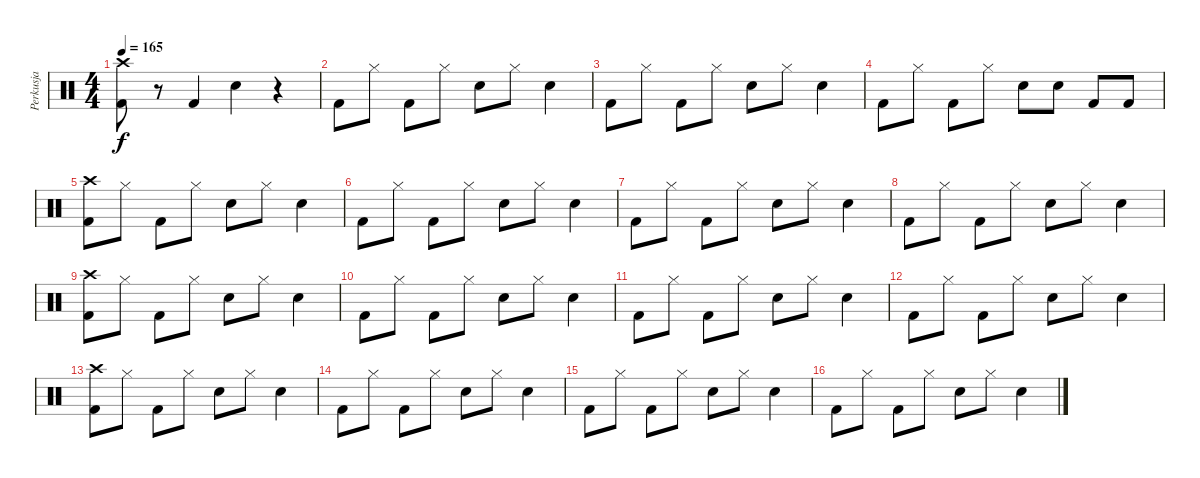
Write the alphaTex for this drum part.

\track ("Perkusja" "Perkusja") {instrument percussion}
\staff {score}
\articulation defaults
\ts (4 4)
\tempo 165
\clef neutral
\ks c
("Crash high (hit)" "Kick (hit) 2").8{dy f} r.8 "Kick (hit) 2".4 "Electric Snare (hit)".4 r.4 |
"Kick (hit) 2".8 "Hi-Hat (closed)".8 "Kick (hit) 2".8 "Hi-Hat (closed)".8 "Electric Snare (hit)".8 "Hi-Hat (closed)".8 "Electric Snare (hit)".4 |
"Kick (hit) 2".8 "Hi-Hat (closed)".8 "Kick (hit) 2".8 "Hi-Hat (closed)".8 "Electric Snare (hit)".8 "Hi-Hat (closed)".8 "Electric Snare (hit)".4 |
"Kick (hit) 2".8 "Hi-Hat (closed)".8 "Kick (hit) 2".8 "Hi-Hat (closed)".8 "Electric Snare (hit)".8 "Electric Snare (hit)".8 "Kick (hit) 2".8 "Kick (hit) 2".8 |
("Crash high (hit)" "Kick (hit) 2").8 "Hi-Hat (closed)".8 "Kick (hit) 2".8 "Hi-Hat (closed)".8 "Electric Snare (hit)".8 "Hi-Hat (closed)".8 "Electric Snare (hit)".4 |
"Kick (hit) 2".8 "Hi-Hat (closed)".8 "Kick (hit) 2".8 "Hi-Hat (closed)".8 "Electric Snare (hit)".8 "Hi-Hat (closed)".8 "Electric Snare (hit)".4 |
"Kick (hit) 2".8 "Hi-Hat (closed)".8 "Kick (hit) 2".8 "Hi-Hat (closed)".8 "Electric Snare (hit)".8 "Hi-Hat (closed)".8 "Electric Snare (hit)".4 |
"Kick (hit) 2".8 "Hi-Hat (closed)".8 "Kick (hit) 2".8 "Hi-Hat (closed)".8 "Electric Snare (hit)".8 "Hi-Hat (closed)".8 "Electric Snare (hit)".4 |
("Crash high (hit)" "Kick (hit) 2").8 "Hi-Hat (closed)".8 "Kick (hit) 2".8 "Hi-Hat (closed)".8 "Electric Snare (hit)".8 "Hi-Hat (closed)".8 "Electric Snare (hit)".4 |
"Kick (hit) 2".8 "Hi-Hat (closed)".8 "Kick (hit) 2".8 "Hi-Hat (closed)".8 "Electric Snare (hit)".8 "Hi-Hat (closed)".8 "Electric Snare (hit)".4 |
"Kick (hit) 2".8 "Hi-Hat (closed)".8 "Kick (hit) 2".8 "Hi-Hat (closed)".8 "Electric Snare (hit)".8 "Hi-Hat (closed)".8 "Electric Snare (hit)".4 |
"Kick (hit) 2".8 "Hi-Hat (closed)".8 "Kick (hit) 2".8 "Hi-Hat (closed)".8 "Electric Snare (hit)".8 "Hi-Hat (closed)".8 "Electric Snare (hit)".4 |
("Crash high (hit)" "Kick (hit) 2").8 "Hi-Hat (closed)".8 "Kick (hit) 2".8 "Hi-Hat (closed)".8 "Electric Snare (hit)".8 "Hi-Hat (closed)".8 "Electric Snare (hit)".4 |
"Kick (hit) 2".8 "Hi-Hat (closed)".8 "Kick (hit) 2".8 "Hi-Hat (closed)".8 "Electric Snare (hit)".8 "Hi-Hat (closed)".8 "Electric Snare (hit)".4 |
"Kick (hit) 2".8 "Hi-Hat (closed)".8 "Kick (hit) 2".8 "Hi-Hat (closed)".8 "Electric Snare (hit)".8 "Hi-Hat (closed)".8 "Electric Snare (hit)".4 |
"Kick (hit) 2".8 "Hi-Hat (closed)".8 "Kick (hit) 2".8 "Hi-Hat (closed)".8 "Electric Snare (hit)".8 "Hi-Hat (closed)".8 "Electric Snare (hit)".4
